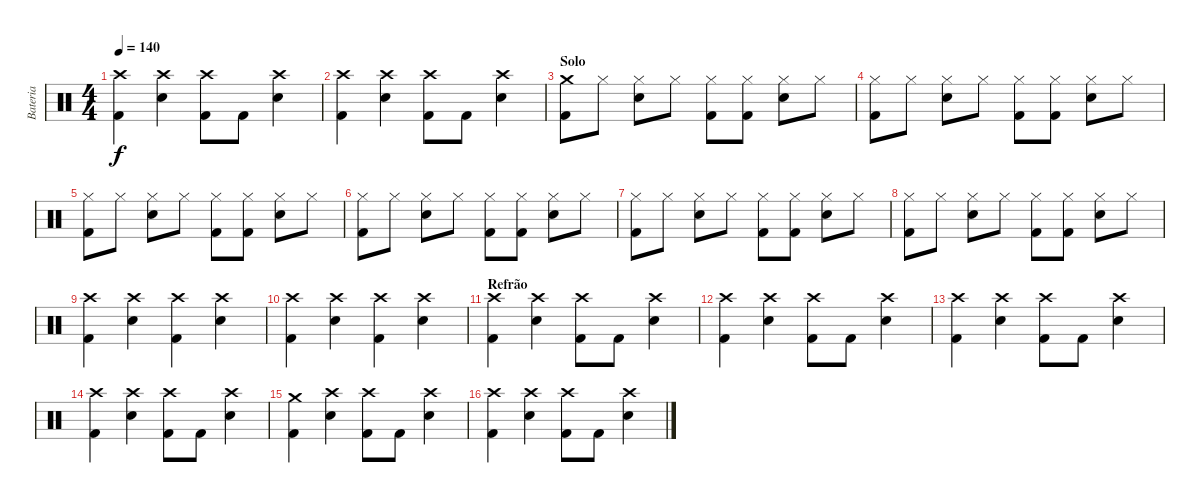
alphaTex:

\track ("Bateria" "Bateria") {instrument percussion}
\staff {score}
\articulation defaults
\ts (4 4)
\tempo 140
\clef neutral
\ks c
("Crash high (hit)" "Kick (hit) 2").4{dy f} ("Crash high (hit)" "Electric Snare (hit)").4 ("Crash high (hit)" "Kick (hit) 2").8 "Kick (hit) 2".8 ("Crash high (hit)" "Electric Snare (hit)").4 |
("Crash high (hit)" "Kick (hit) 2").4 ("Crash high (hit)" "Electric Snare (hit)").4 ("Crash high (hit)" "Kick (hit) 2").8 "Kick (hit) 2".8 ("Crash high (hit)" "Electric Snare (hit)").4 |
\section ("" "Solo")
("Crash medium (hit)" "Kick (hit) 2").8 "Hi-Hat (closed)".8 ("Hi-Hat (closed)" "Electric Snare (hit)").8 "Hi-Hat (closed)".8 ("Hi-Hat (closed)" "Kick (hit) 2").8 ("Hi-Hat (closed)" "Kick (hit) 2").8 ("Hi-Hat (closed)" "Electric Snare (hit)").8 "Hi-Hat (closed)".8 |
("Hi-Hat (closed)" "Kick (hit) 2").8 "Hi-Hat (closed)".8 ("Hi-Hat (closed)" "Electric Snare (hit)").8 "Hi-Hat (closed)".8 ("Hi-Hat (closed)" "Kick (hit) 2").8 ("Hi-Hat (closed)" "Kick (hit) 2").8 ("Hi-Hat (closed)" "Electric Snare (hit)").8 "Hi-Hat (closed)".8 |
("Hi-Hat (closed)" "Kick (hit) 2").8 "Hi-Hat (closed)".8 ("Hi-Hat (closed)" "Electric Snare (hit)").8 "Hi-Hat (closed)".8 ("Hi-Hat (closed)" "Kick (hit) 2").8 ("Hi-Hat (closed)" "Kick (hit) 2").8 ("Hi-Hat (closed)" "Electric Snare (hit)").8 "Hi-Hat (closed)".8 |
("Hi-Hat (closed)" "Kick (hit) 2").8 "Hi-Hat (closed)".8 ("Hi-Hat (closed)" "Electric Snare (hit)").8 "Hi-Hat (closed)".8 ("Hi-Hat (closed)" "Kick (hit) 2").8 ("Hi-Hat (closed)" "Kick (hit) 2").8 ("Hi-Hat (closed)" "Electric Snare (hit)").8 "Hi-Hat (closed)".8 |
("Hi-Hat (closed)" "Kick (hit) 2").8 "Hi-Hat (closed)".8 ("Hi-Hat (closed)" "Electric Snare (hit)").8 "Hi-Hat (closed)".8 ("Hi-Hat (closed)" "Kick (hit) 2").8 ("Hi-Hat (closed)" "Kick (hit) 2").8 ("Hi-Hat (closed)" "Electric Snare (hit)").8 "Hi-Hat (closed)".8 |
("Hi-Hat (closed)" "Kick (hit) 2").8 "Hi-Hat (closed)".8 ("Hi-Hat (closed)" "Electric Snare (hit)").8 "Hi-Hat (closed)".8 ("Hi-Hat (closed)" "Kick (hit) 2").8 ("Hi-Hat (closed)" "Kick (hit) 2").8 ("Hi-Hat (closed)" "Electric Snare (hit)").8 "Hi-Hat (closed)".8 |
("Crash high (hit)" "Kick (hit) 2").4 ("Crash high (hit)" "Electric Snare (hit)").4 ("Crash high (hit)" "Kick (hit) 2").4 ("Crash high (hit)" "Electric Snare (hit)").4 |
("Crash high (hit)" "Kick (hit) 2").4 ("Crash high (hit)" "Electric Snare (hit)").4 ("Crash high (hit)" "Kick (hit) 2").4 ("Crash high (hit)" "Electric Snare (hit)").4 |
\section ("" "Refrão")
("Crash high (hit)" "Kick (hit) 2").4 ("Crash high (hit)" "Electric Snare (hit)").4 ("Crash high (hit)" "Kick (hit) 2").8 "Kick (hit) 2".8 ("Crash high (hit)" "Electric Snare (hit)").4 |
("Crash high (hit)" "Kick (hit) 2").4 ("Crash high (hit)" "Electric Snare (hit)").4 ("Crash high (hit)" "Kick (hit) 2").8 "Kick (hit) 2".8 ("Crash high (hit)" "Electric Snare (hit)").4 |
("Crash high (hit)" "Kick (hit) 2").4 ("Crash high (hit)" "Electric Snare (hit)").4 ("Crash high (hit)" "Kick (hit) 2").8 "Kick (hit) 2".8 ("Crash high (hit)" "Electric Snare (hit)").4 |
("Crash high (hit)" "Kick (hit) 2").4 ("Crash high (hit)" "Electric Snare (hit)").4 ("Crash high (hit)" "Kick (hit) 2").8 "Kick (hit) 2".8 ("Crash high (hit)" "Electric Snare (hit)").4 |
("Crash medium (hit)" "Kick (hit) 2").4 ("Crash high (hit)" "Electric Snare (hit)").4 ("Crash high (hit)" "Kick (hit) 2").8 "Kick (hit) 2".8 ("Crash high (hit)" "Electric Snare (hit)").4 |
("Crash high (hit)" "Kick (hit) 2").4 ("Crash high (hit)" "Electric Snare (hit)").4 ("Crash high (hit)" "Kick (hit) 2").8 "Kick (hit) 2".8 ("Crash high (hit)" "Electric Snare (hit)").4
